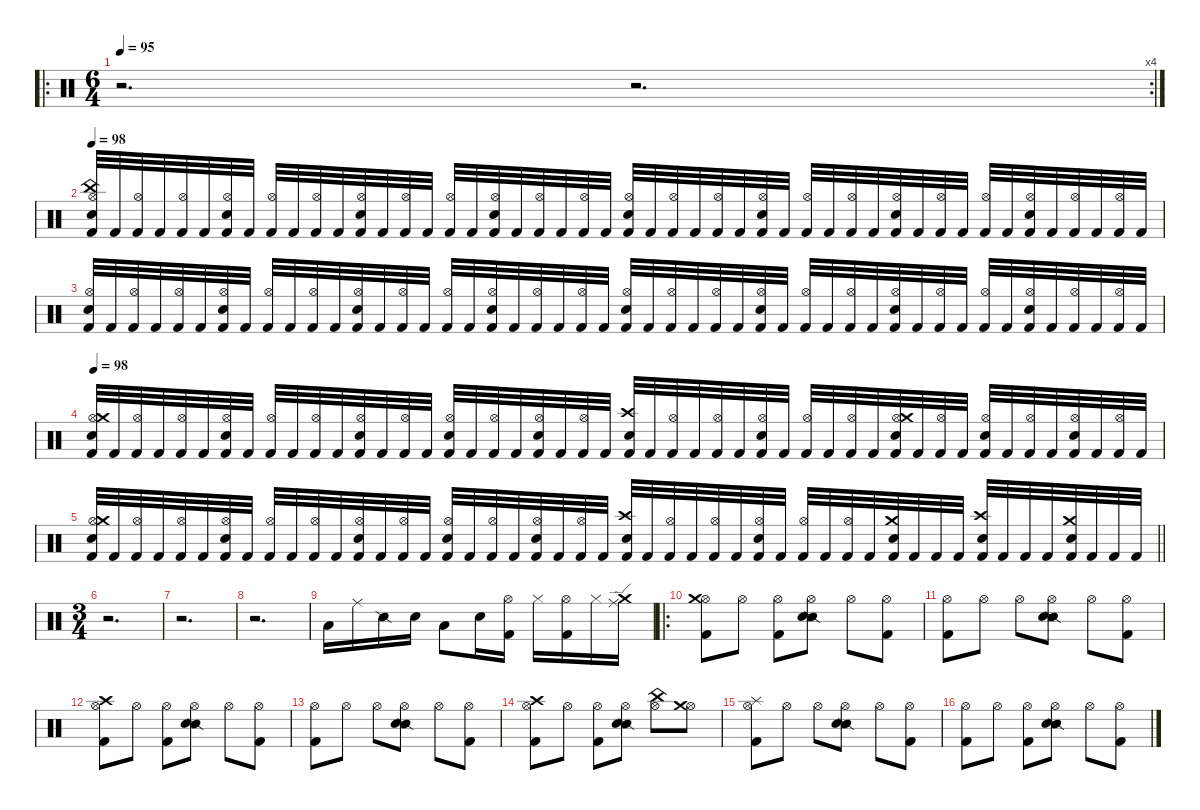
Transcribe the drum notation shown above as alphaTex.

\defaultSystemsLayout 4
\hideDynamics
\bracketExtendMode nobrackets
\singleTrackTrackNamePolicy hidden
\multiTrackTrackNamePolicy hidden
\firstSystemTrackNameMode fullname
\firstSystemTrackNameOrientation horizontal
\otherSystemsTrackNameOrientation horizontal
\track ("Drums" "drm.") {defaultSystemsLayout 4 instrument percussion}
\staff {score}
\articulation defaults
\ro
\rc 4
\ts (6 4)
\tempo 95
\clef neutral
\ks c
r.2{d dy fff beam Down} r.2{d beam Down} |
\tempo 98
("Hi-Hat (open)" "China (hit)" "Snare (hit) 2" "Kick (hit) 2").32{dy f beam Up} "Kick (hit) 2".32{dy ff beam Up} ("Hi-Hat (open)" "Kick (hit) 2").32{dy f beam Up} "Kick (hit) 2".32{dy ff beam Up} ("Hi-Hat (open)" "Kick (hit) 2").32{dy f beam Up} "Kick (hit) 2".32{dy ff beam Up} ("Hi-Hat (open)" "Snare (hit) 2" "Kick (hit) 2").32{dy f beam Up} "Kick (hit) 2".32{dy ff beam Up} ("Hi-Hat (open)" "Kick (hit) 2").32{dy f beam Up} "Kick (hit) 2".32{dy ff beam Up} ("Hi-Hat (open)" "Kick (hit) 2").32{dy f beam Up} "Kick (hit) 2".32{dy ff beam Up} ("Hi-Hat (open)" "Snare (hit) 2" "Kick (hit) 2").32{dy f beam Up} "Kick (hit) 2".32{dy ff beam Up} ("Hi-Hat (open)" "Kick (hit) 2").32{dy f beam Up} "Kick (hit) 2".32{dy ff beam Up} ("Hi-Hat (open)" "Kick (hit) 2").32{dy f beam Up} "Kick (hit) 2".32{dy ff beam Up} ("Hi-Hat (open)" "Snare (hit) 2" "Kick (hit) 2").32{dy f beam Up} "Kick (hit) 2".32{dy ff beam Up} ("Hi-Hat (open)" "Kick (hit) 2").32{dy f beam Up} "Kick (hit) 2".32{dy ff beam Up} ("Hi-Hat (open)" "Kick (hit) 2").32{dy f beam Up} "Kick (hit) 2".32{dy ff beam Up} ("Hi-Hat (open)" "Snare (hit) 2" "Kick (hit) 2").32{dy f beam Up} "Kick (hit) 2".32{dy ff beam Up} ("Hi-Hat (open)" "Kick (hit) 2").32{dy f beam Up} "Kick (hit) 2".32{dy ff beam Up} ("Hi-Hat (open)" "Kick (hit) 2").32{dy f beam Up} "Kick (hit) 2".32{dy ff beam Up} ("Hi-Hat (open)" "Snare (hit) 2" "Kick (hit) 2").32{dy f beam Up} "Kick (hit) 2".32{dy ff beam Up} ("Hi-Hat (open)" "Kick (hit) 2").32{dy f beam Up} "Kick (hit) 2".32{dy ff beam Up} ("Hi-Hat (open)" "Kick (hit) 2").32{dy f beam Up} "Kick (hit) 2".32{dy ff beam Up} ("Hi-Hat (open)" "Snare (hit) 2" "Kick (hit) 2").32{dy f beam Up} "Kick (hit) 2".32{dy ff beam Up} ("Hi-Hat (open)" "Kick (hit) 2").32{dy f beam Up} "Kick (hit) 2".32{dy ff beam Up} ("Hi-Hat (open)" "Kick (hit) 2").32{dy f beam Up} "Kick (hit) 2".32{dy ff beam Up} ("Hi-Hat (open)" "Snare (hit) 2" "Kick (hit) 2").32{dy f beam Up} "Kick (hit) 2".32{dy ff beam Up} ("Hi-Hat (open)" "Kick (hit) 2").32{dy f beam Up} "Kick (hit) 2".32{dy ff beam Up} ("Hi-Hat (open)" "Kick (hit) 2").32{dy f beam Up} "Kick (hit) 2".32{dy ff beam Up} |
("Hi-Hat (open)" "Snare (hit) 2" "Kick (hit) 2").32{dy f beam Up} "Kick (hit) 2".32{dy ff beam Up} ("Hi-Hat (open)" "Kick (hit) 2").32{dy f beam Up} "Kick (hit) 2".32{dy ff beam Up} ("Hi-Hat (open)" "Kick (hit) 2").32{dy f beam Up} "Kick (hit) 2".32{dy ff beam Up} ("Hi-Hat (open)" "Snare (hit) 2" "Kick (hit) 2").32{dy f beam Up} "Kick (hit) 2".32{dy ff beam Up} ("Hi-Hat (open)" "Kick (hit) 2").32{dy f beam Up} "Kick (hit) 2".32{dy ff beam Up} ("Hi-Hat (open)" "Kick (hit) 2").32{dy f beam Up} "Kick (hit) 2".32{dy ff beam Up} ("Hi-Hat (open)" "Snare (hit) 2" "Kick (hit) 2").32{dy f beam Up} "Kick (hit) 2".32{dy ff beam Up} ("Hi-Hat (open)" "Kick (hit) 2").32{dy f beam Up} "Kick (hit) 2".32{dy ff beam Up} ("Hi-Hat (open)" "Kick (hit) 2").32{dy f beam Up} "Kick (hit) 2".32{dy ff beam Up} ("Hi-Hat (open)" "Snare (hit) 2" "Kick (hit) 2").32{dy f beam Up} "Kick (hit) 2".32{dy ff beam Up} ("Hi-Hat (open)" "Kick (hit) 2").32{dy f beam Up} "Kick (hit) 2".32{dy ff beam Up} ("Hi-Hat (open)" "Kick (hit) 2").32{dy f beam Up} "Kick (hit) 2".32{dy ff beam Up} ("Hi-Hat (open)" "Snare (hit) 2" "Kick (hit) 2").32{dy f beam Up} "Kick (hit) 2".32{dy ff beam Up} ("Hi-Hat (open)" "Kick (hit) 2").32{dy f beam Up} "Kick (hit) 2".32{dy ff beam Up} ("Hi-Hat (open)" "Kick (hit) 2").32{dy f beam Up} "Kick (hit) 2".32{dy ff beam Up} ("Hi-Hat (open)" "Snare (hit) 2" "Kick (hit) 2").32{dy f beam Up} "Kick (hit) 2".32{dy ff beam Up} ("Hi-Hat (open)" "Kick (hit) 2").32{dy f beam Up} "Kick (hit) 2".32{dy ff beam Up} ("Hi-Hat (open)" "Kick (hit) 2").32{dy f beam Up} "Kick (hit) 2".32{dy ff beam Up} ("Hi-Hat (open)" "Snare (hit) 2" "Kick (hit) 2").32{dy f beam Up} "Kick (hit) 2".32{dy ff beam Up} ("Hi-Hat (open)" "Kick (hit) 2").32{dy f beam Up} "Kick (hit) 2".32{dy ff beam Up} ("Hi-Hat (open)" "Kick (hit) 2").32{dy f beam Up} "Kick (hit) 2".32{dy ff beam Up} ("Hi-Hat (open)" "Snare (hit) 2" "Kick (hit) 2").32{dy f beam Up} "Kick (hit) 2".32{dy ff beam Up} ("Hi-Hat (open)" "Kick (hit) 2").32{dy f beam Up} "Kick (hit) 2".32{dy ff beam Up} ("Hi-Hat (open)" "Kick (hit) 2").32{dy f beam Up} "Kick (hit) 2".32{dy ff beam Up} |
\tempo 98
("Hi-Hat (open)" "Crash medium (hit)" "Snare (hit) 2" "Kick (hit) 2").32{dy f beam Up} "Kick (hit) 2".32{dy ff beam Up} ("Hi-Hat (open)" "Kick (hit) 2").32{dy f beam Up} "Kick (hit) 2".32{dy ff beam Up} ("Hi-Hat (open)" "Kick (hit) 2").32{dy f beam Up} "Kick (hit) 2".32{dy ff beam Up} ("Hi-Hat (open)" "Snare (hit) 2" "Kick (hit) 2").32{dy f beam Up} "Kick (hit) 2".32{dy ff beam Up} ("Hi-Hat (open)" "Kick (hit) 2").32{dy f beam Up} "Kick (hit) 2".32{dy ff beam Up} ("Hi-Hat (open)" "Kick (hit) 2").32{dy f beam Up} "Kick (hit) 2".32{dy ff beam Up} ("Hi-Hat (open)" "Snare (hit) 2" "Kick (hit) 2").32{dy f beam Up} "Kick (hit) 2".32{dy ff beam Up} ("Hi-Hat (open)" "Kick (hit) 2").32{dy f beam Up} "Kick (hit) 2".32{dy ff beam Up} ("Hi-Hat (open)" "Snare (hit) 2" "Kick (hit) 2").32{dy f beam Up} "Kick (hit) 2".32{dy ff beam Up} ("Hi-Hat (open)" "Kick (hit) 2").32{dy f beam Up} "Kick (hit) 2".32{dy ff beam Up} ("Hi-Hat (open)" "Snare (hit) 2" "Kick (hit) 2").32{dy f beam Up} "Kick (hit) 2".32{dy ff beam Up} ("Hi-Hat (open)" "Kick (hit) 2").32{dy f beam Up} "Kick (hit) 2".32{dy ff beam Up} ("Crash high (hit)" "Snare (hit) 2" "Kick (hit) 2").32{dy fff beam Up} "Kick (hit) 2".32{dy ff beam Up} ("Hi-Hat (open)" "Kick (hit) 2").32{dy f beam Up} "Kick (hit) 2".32{dy ff beam Up} ("Hi-Hat (open)" "Kick (hit) 2").32{dy f beam Up} "Kick (hit) 2".32{dy ff beam Up} ("Hi-Hat (open)" "Snare (hit) 2" "Kick (hit) 2").32{dy f beam Up} "Kick (hit) 2".32{dy ff beam Up} ("Hi-Hat (open)" "Kick (hit) 2").32{dy f beam Up} "Kick (hit) 2".32{dy ff beam Up} ("Hi-Hat (open)" "Kick (hit) 2").32{dy f beam Up} "Kick (hit) 2".32{dy ff beam Up} ("Hi-Hat (open)" "Crash medium (hit)" "Snare (hit) 2" "Kick (hit) 2").32{dy f beam Up} "Kick (hit) 2".32{dy ff beam Up} ("Hi-Hat (open)" "Kick (hit) 2").32{dy f beam Up} "Kick (hit) 2".32{dy ff beam Up} ("Hi-Hat (open)" "Snare (hit) 2" "Kick (hit) 2").32{dy f beam Up} "Kick (hit) 2".32{dy ff beam Up} ("Hi-Hat (open)" "Kick (hit) 2").32{dy f beam Up} "Kick (hit) 2".32{dy ff beam Up} ("Hi-Hat (open)" "Snare (hit) 2" "Kick (hit) 2").32{dy f beam Up} "Kick (hit) 2".32{dy ff beam Up} ("Hi-Hat (open)" "Kick (hit) 2").32{dy f beam Up} "Kick (hit) 2".32{dy ff beam Up} |
\barLineRight lightlight
("Hi-Hat (open)" "Crash medium (hit)" "Snare (hit) 2" "Kick (hit) 2").32{dy f beam Up} "Kick (hit) 2".32{dy ff beam Up} ("Hi-Hat (open)" "Kick (hit) 2").32{dy f beam Up} "Kick (hit) 2".32{dy ff beam Up} ("Hi-Hat (open)" "Kick (hit) 2").32{dy f beam Up} "Kick (hit) 2".32{dy ff beam Up} ("Hi-Hat (open)" "Snare (hit) 2" "Kick (hit) 2").32{dy f beam Up} "Kick (hit) 2".32{dy ff beam Up} ("Hi-Hat (open)" "Kick (hit) 2").32{dy f beam Up} "Kick (hit) 2".32{dy ff beam Up} ("Hi-Hat (open)" "Kick (hit) 2").32{dy f beam Up} "Kick (hit) 2".32{dy ff beam Up} ("Hi-Hat (open)" "Snare (hit) 2" "Kick (hit) 2").32{dy f beam Up} "Kick (hit) 2".32{dy ff beam Up} ("Hi-Hat (open)" "Kick (hit) 2").32{dy f beam Up} "Kick (hit) 2".32{dy ff beam Up} ("Hi-Hat (open)" "Snare (hit) 2" "Kick (hit) 2").32{dy f beam Up} "Kick (hit) 2".32{dy ff beam Up} ("Hi-Hat (open)" "Kick (hit) 2").32{dy f beam Up} "Kick (hit) 2".32{dy ff beam Up} ("Hi-Hat (open)" "Snare (hit) 2" "Kick (hit) 2").32{dy f beam Up} "Kick (hit) 2".32{dy ff beam Up} ("Hi-Hat (open)" "Kick (hit) 2").32{dy f beam Up} "Kick (hit) 2".32{dy ff beam Up} ("Crash high (hit)" "Snare (hit) 2" "Kick (hit) 2").32{dy fff beam Up} "Kick (hit) 2".32{dy ff beam Up} ("Hi-Hat (open)" "Kick (hit) 2").32{dy f beam Up} "Kick (hit) 2".32{dy ff beam Up} ("Hi-Hat (open)" "Kick (hit) 2").32{dy f beam Up} "Kick (hit) 2".32{dy ff beam Up} ("Hi-Hat (open)" "Snare (hit) 2" "Kick (hit) 2").32{dy f beam Up} "Kick (hit) 2".32{dy ff beam Up} ("Hi-Hat (open)" "Kick (hit) 2").32{dy f beam Up} "Kick (hit) 2".32{dy ff beam Up} ("Hi-Hat (open)" "Kick (hit) 2").32{dy f beam Up} "Kick (hit) 2".32{dy ff beam Up} ("Crash medium (hit)" "Snare (hit) 2" "Kick (hit) 2").32{dy fff beam Up} "Kick (hit) 2".32{dy ff beam Up} "Kick (hit) 2".32{beam Up} "Kick (hit) 2".32{beam Up} ("Crash high (hit)" "Snare (hit) 2" "Kick (hit) 2").32{dy fff beam Up} "Kick (hit) 2".32{dy ff beam Up} "Kick (hit) 2".32{beam Up} "Kick (hit) 2".32{beam Up} ("Crash medium (hit)" "Snare (hit) 2" "Kick (hit) 2").32{dy fff beam Up} "Kick (hit) 2".32{dy ff beam Up} "Kick (hit) 2".32{beam Up} "Kick (hit) 2".32{beam Up} |
\ts (3 4)
\beaming (8 2 2 2)
r.2{d beam Down} |
r.2{d beam Down} |
r.2{d beam Down} |
"Low Tom (hit)".16{beam Down} "Ride (middle)".16{beam Down} "Snare (side stick) 2".16{dy fff beam Down} "Snare (hit) 2".16{beam Down} "Low Tom (hit)".8{dy f beam Down} "Snare (hit) 2".16{dy ff beam Down} ("Hi-Hat (open)" "Kick (hit) 2").16{beam Down} "Hi-Hat (closed)".16{beam Down} ("Hi-Hat (open)" "Kick (hit) 2").16{beam Down} "Hi-Hat (closed)".16{beam Down} ("Ride (edge)" "Crash medium (hit)").16{beam Down} |
\ro
("Hi-Hat (open)" "Crash medium (hit)" "Kick (hit) 2").8{beam Down} "Hi-Hat (open)".8{beam Down} ("Hi-Hat (open)" "Kick (hit) 2").8{beam Down} ("Hi-Hat (open)" "Snare (side stick) 2" "Snare (hit) 2").8{beam Down} "Hi-Hat (open)".8{beam Down} ("Hi-Hat (open)" "Kick (hit) 2").8{beam Down} |
("Hi-Hat (open)" "Kick (hit) 2").8{beam Down} "Hi-Hat (open)".8{beam Down} "Hi-Hat (open)".8{beam Down} ("Hi-Hat (open)" "Snare (side stick) 2" "Snare (hit) 2").8{beam Down} "Hi-Hat (open)".8{beam Down} ("Hi-Hat (open)" "Kick (hit) 2").8{beam Down} |
("Hi-Hat (open)" "Crash high (hit)" "Kick (hit) 2").8{beam Down} "Hi-Hat (open)".8{beam Down} ("Hi-Hat (open)" "Kick (hit) 2").8{beam Down} ("Hi-Hat (open)" "Snare (side stick) 2" "Snare (hit) 2").8{beam Down} "Hi-Hat (open)".8{beam Down} ("Hi-Hat (open)" "Kick (hit) 2").8{beam Down} |
("Hi-Hat (open)" "Kick (hit) 2").8{beam Down} "Hi-Hat (open)".8{beam Down} "Hi-Hat (open)".8{beam Down} ("Hi-Hat (open)" "Snare (side stick) 2" "Snare (hit) 2").8{beam Down} "Hi-Hat (open)".8{beam Down} ("Hi-Hat (open)" "Kick (hit) 2").8{beam Down} |
("Hi-Hat (open)" "Crash high (hit)" "Kick (hit) 2").8{beam Down} "Hi-Hat (open)".8{beam Down} ("Hi-Hat (open)" "Kick (hit) 2").8{beam Down} ("Hi-Hat (open)" "Snare (side stick) 2" "Snare (hit) 2").8{beam Down} ("Hi-Hat (open)" "China (hit)").8{dy fff beam Down} ("Hi-Hat (open)" "Crash medium (hit)").8{dy ff beam Down} |
("Hi-Hat (open)" "Splash (hit)" "Kick (hit) 2").8{beam Down} "Hi-Hat (open)".8{beam Down} "Hi-Hat (open)".8{beam Down} ("Hi-Hat (open)" "Snare (side stick) 2" "Snare (hit) 2").8{beam Down} "Hi-Hat (open)".8{beam Down} ("Hi-Hat (open)" "Kick (hit) 2").8{beam Down} |
("Hi-Hat (open)" "Kick (hit) 2").8{beam Down} "Hi-Hat (open)".8{beam Down} ("Hi-Hat (open)" "Kick (hit) 2").8{dy f beam Down} ("Hi-Hat (open)" "Snare (side stick) 2" "Snare (hit) 2").8{dy ff beam Down} "Hi-Hat (open)".8{beam Down} ("Hi-Hat (open)" "Kick (hit) 2").8{beam Down}
